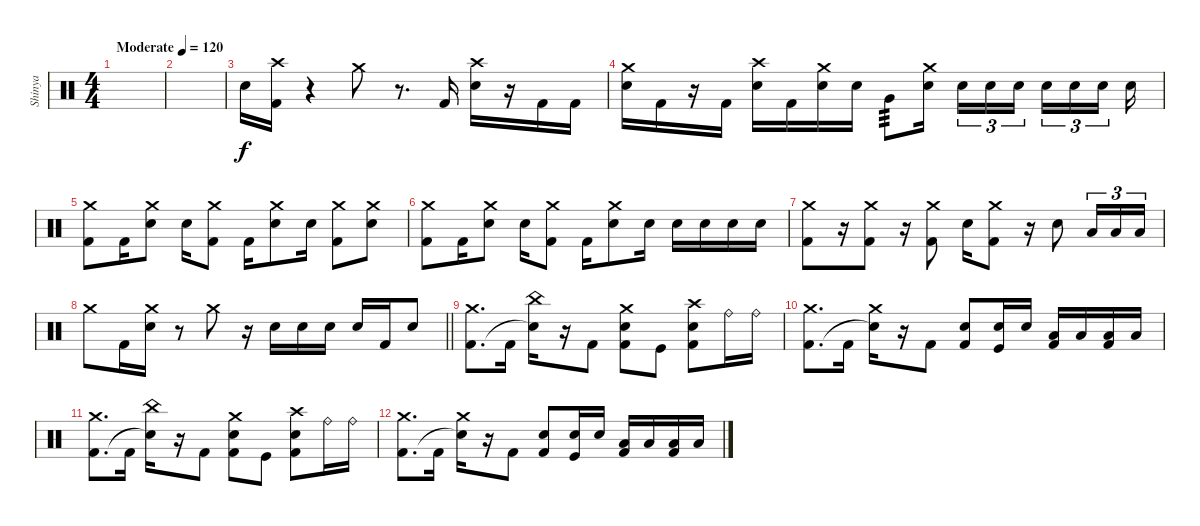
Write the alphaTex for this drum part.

\track ("Shinya" "Shinya") {instrument percussion}
\staff {score}
\articulation defaults
\ts (4 4)
\tempo (120 "Moderate")
\clef neutral
\ks c
|
|
"Electric Snare (hit)".16 ("Crash high (hit)" "Kick (hit) 2").16 r.4 "Crash medium (hit)".8 r.8{d} "Kick (hit) 2".16 ("Crash high (hit)" "Electric Snare (hit)").16 r.16 "Kick (hit) 2".16 "Kick (hit) 2".16 |
("Crash medium (hit)" "Electric Snare (hit)").16 "Kick (hit) 2".16 r.16 "Kick (hit) 2".16 ("Crash high (hit)" "Electric Snare (hit)").16 "Kick (hit) 2".16 ("Crash medium (hit)" "Electric Snare (hit)").16 "Electric Snare (hit)".16 "Very Low Tom (hit)".8{tp 3} ("Crash medium (hit)" "Electric Snare (hit)").16{beam splitsecondary} "Electric Snare (hit)".16{tu (3 2)} "Electric Snare (hit)".16{tu (3 2)} "Electric Snare (hit)".16{tu (3 2) beam splitsecondary} "Electric Snare (hit)".16{tu (3 2)} "Electric Snare (hit)".16{tu (3 2)} "Electric Snare (hit)".16{tu (3 2) beam splitsecondary} "Electric Snare (hit)".16 |
("Crash medium (hit)" "Kick (hit) 2").8 "Kick (hit) 2".16 ("Crash medium (hit)" "Electric Snare (hit)").8 "Electric Snare (hit)".16 ("Crash medium (hit)" "Kick (hit) 2").8 "Kick (hit) 2".16 ("Crash medium (hit)" "Electric Snare (hit)").8 "Electric Snare (hit)".16 ("Crash medium (hit)" "Kick (hit) 2").8 ("Crash medium (hit)" "Electric Snare (hit)").8 |
("Crash medium (hit)" "Kick (hit) 2").8 "Kick (hit) 2".16 ("Crash medium (hit)" "Electric Snare (hit)").8 "Electric Snare (hit)".16 ("Crash medium (hit)" "Kick (hit) 2").8 "Kick (hit) 2".16 ("Crash medium (hit)" "Electric Snare (hit)").8 "Electric Snare (hit)".16 "Electric Snare (hit)".16 "Electric Snare (hit)".16 "Electric Snare (hit)".16 "Electric Snare (hit)".16 |
("Crash medium (hit)" "Kick (hit) 2").8 r.16 ("Crash medium (hit)" "Kick (hit) 2").8 r.16 ("Crash medium (hit)" "Kick (hit) 2").8 "Electric Snare (hit)".16 ("Crash medium (hit)" "Kick (hit) 2").8 r.16 "Electric Snare (hit)".8 "Low Tom (hit)".16{tu (3 2)} "Low Floor Tom (hit)".16{tu (3 2)} "Low Floor Tom (hit)".16{tu (3 2)} |
\barLineRight lightlight "Crash medium (hit)".8 "Kick (hit) 2".16
("Crash medium (hit)" "Electric Snare (hit)").16 r.8 "Crash medium (hit)".8 r.16 "Electric Snare (hit)".16 "Electric Snare (hit)".16 "Electric Snare (hit)".16 "Electric Snare (hit)".16 "Kick (hit) 2".16 "Electric Snare (hit)".8 |
("Crash medium (hit)" "Kick (hit) 2").8{d} "Kick (hit) 2".16 ("China (hit)" "Snare (hit)"{t}).16 r.16 "Kick (hit) 2".8 ("Crash medium (hit)" "Electric Snare (hit)" "Kick (hit) 2").8 "Kick (hit)".8 ("Crash high (hit)" "Electric Snare (hit)" "Kick (hit) 2").8 "Ride (bell)".16 "Ride (bell)".16 |
("Crash medium (hit)" "Kick (hit) 2").8{d} "Kick (hit) 2".16 ("Crash medium (hit)" "Snare (hit)"{t}).16 r.16 "Kick (hit) 2".8 ("Electric Snare (hit)" "Kick (hit) 2").8 ("Electric Snare (hit)" "Kick (hit)").16 "Electric Snare (hit)".16 ("Low Tom (hit)" "Kick (hit) 2").16 "Low Tom (hit)".16 ("Low Floor Tom (hit)" "Kick (hit) 2").16 "Low Floor Tom (hit)".16 |
("Crash medium (hit)" "Kick (hit) 2").8{d} "Kick (hit) 2".16 ("China (hit)" "Snare (hit)"{t}).16 r.16 "Kick (hit) 2".8 ("Crash medium (hit)" "Electric Snare (hit)" "Kick (hit) 2").8 "Kick (hit)".8 ("Crash high (hit)" "Electric Snare (hit)" "Kick (hit) 2").8 "Ride (bell)".16 "Ride (bell)".16 |
("Crash medium (hit)" "Kick (hit) 2").8{d} "Kick (hit) 2".16 ("Crash medium (hit)" "Snare (hit)"{t}).16 r.16 "Kick (hit) 2".8 ("Electric Snare (hit)" "Kick (hit) 2").8 ("Electric Snare (hit)" "Kick (hit)").16 "Electric Snare (hit)".16 ("Low Tom (hit)" "Kick (hit) 2").16 "Low Tom (hit)".16 ("Low Floor Tom (hit)" "Kick (hit) 2").16 "Low Floor Tom (hit)".16
